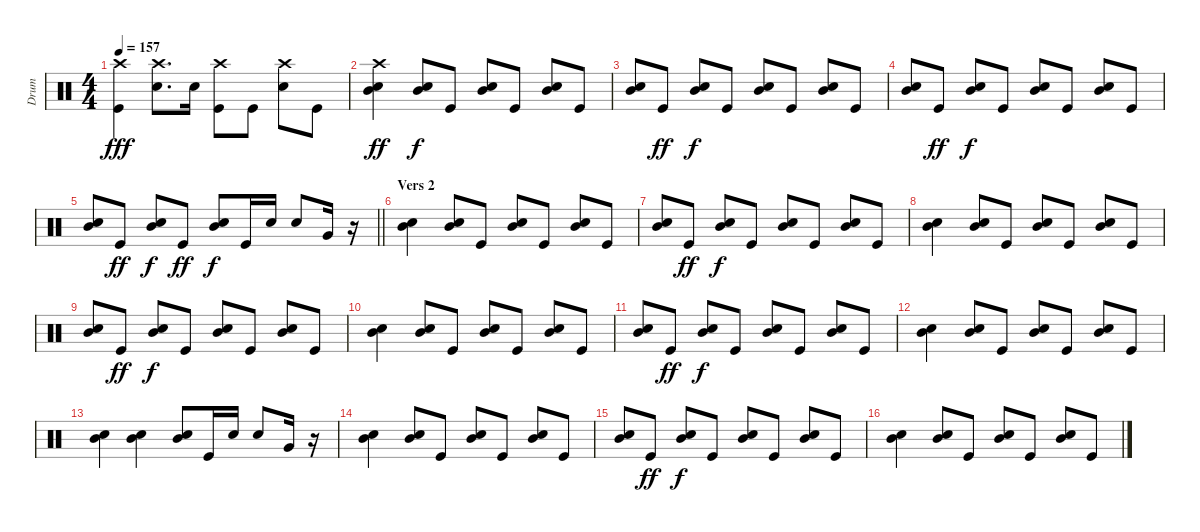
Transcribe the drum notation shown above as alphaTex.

\track ("Drum" "Drum") {instrument percussion}
\staff {score}
\articulation defaults
\ts (4 4)
\tempo 157
\clef neutral
\ks c
("Crash high (hit)" "Kick (hit)").4{dy fff} ("Crash high (hit)" "Snare (hit) 2").8{d} "Snare (hit) 2".16 ("Crash high (hit)" "Kick (hit)").8 "Kick (hit)".8 ("Crash high (hit)" "Snare (hit) 2").8 "Kick (hit)".8 |
("Crash high (hit)" "Mid Tom (hit)" "Snare (hit) 2").4{dy ff} ("Mid Tom (hit)" "Snare (hit) 2").8{dy f} "Kick (hit)".8 ("Mid Tom (hit)" "Snare (hit) 2").8 "Kick (hit)".8 ("Mid Tom (hit)" "Snare (hit) 2").8 "Kick (hit)".8 |
("Mid Tom (hit)" "Snare (hit) 2").8 "Kick (hit)".8{dy ff} ("Mid Tom (hit)" "Snare (hit) 2").8{dy f} "Kick (hit)".8 ("Mid Tom (hit)" "Snare (hit) 2").8 "Kick (hit)".8 ("Mid Tom (hit)" "Snare (hit) 2").8 "Kick (hit)".8 |
("Mid Tom (hit)" "Snare (hit) 2").8 "Kick (hit)".8{dy ff} ("Mid Tom (hit)" "Snare (hit) 2").8{dy f} "Kick (hit)".8 ("Mid Tom (hit)" "Snare (hit) 2").8 "Kick (hit)".8 ("Mid Tom (hit)" "Snare (hit) 2").8 "Kick (hit)".8 |
\barLineRight lightlight
("Mid Tom (hit)" "Snare (hit) 2").8 "Kick (hit)".8{dy ff} ("Mid Tom (hit)" "Snare (hit) 2").8{dy f} "Kick (hit)".8{dy ff} ("Mid Tom (hit)" "Snare (hit) 2").8{dy f} "Kick (hit)".16 "Snare (hit) 2".16 "Snare (hit) 2".8 "Very Low Tom (hit)".16 r.16 |
\section ("" "Vers 2")
("Mid Tom (hit)" "Snare (hit) 2").4 ("Mid Tom (hit)" "Snare (hit) 2").8 "Kick (hit)".8 ("Mid Tom (hit)" "Snare (hit) 2").8 "Kick (hit)".8 ("Mid Tom (hit)" "Snare (hit) 2").8 "Kick (hit)".8 |
("Mid Tom (hit)" "Snare (hit) 2").8 "Kick (hit)".8{dy ff} ("Mid Tom (hit)" "Snare (hit) 2").8{dy f} "Kick (hit)".8 ("Mid Tom (hit)" "Snare (hit) 2").8 "Kick (hit)".8 ("Mid Tom (hit)" "Snare (hit) 2").8 "Kick (hit)".8 |
("Mid Tom (hit)" "Snare (hit) 2").4 ("Mid Tom (hit)" "Snare (hit) 2").8 "Kick (hit)".8 ("Mid Tom (hit)" "Snare (hit) 2").8 "Kick (hit)".8 ("Mid Tom (hit)" "Snare (hit) 2").8 "Kick (hit)".8 |
("Mid Tom (hit)" "Snare (hit) 2").8 "Kick (hit)".8{dy ff} ("Mid Tom (hit)" "Snare (hit) 2").8{dy f} "Kick (hit)".8 ("Mid Tom (hit)" "Snare (hit) 2").8 "Kick (hit)".8 ("Mid Tom (hit)" "Snare (hit) 2").8 "Kick (hit)".8 |
("Mid Tom (hit)" "Snare (hit) 2").4 ("Mid Tom (hit)" "Snare (hit) 2").8 "Kick (hit)".8 ("Mid Tom (hit)" "Snare (hit) 2").8 "Kick (hit)".8 ("Mid Tom (hit)" "Snare (hit) 2").8 "Kick (hit)".8 |
("Mid Tom (hit)" "Snare (hit) 2").8 "Kick (hit)".8{dy ff} ("Mid Tom (hit)" "Snare (hit) 2").8{dy f} "Kick (hit)".8 ("Mid Tom (hit)" "Snare (hit) 2").8 "Kick (hit)".8 ("Mid Tom (hit)" "Snare (hit) 2").8 "Kick (hit)".8 |
("Mid Tom (hit)" "Snare (hit) 2").4 ("Mid Tom (hit)" "Snare (hit) 2").8 "Kick (hit)".8 ("Mid Tom (hit)" "Snare (hit) 2").8 "Kick (hit)".8 ("Mid Tom (hit)" "Snare (hit) 2").8 "Kick (hit)".8 |
("Mid Tom (hit)" "Snare (hit) 2").4 ("Mid Tom (hit)" "Snare (hit) 2").4 ("Mid Tom (hit)" "Snare (hit) 2").8 "Kick (hit)".16 "Snare (hit) 2".16 "Snare (hit) 2".8 "Very Low Tom (hit)".16 r.16 |
("Mid Tom (hit)" "Snare (hit) 2").4 ("Mid Tom (hit)" "Snare (hit) 2").8 "Kick (hit)".8 ("Mid Tom (hit)" "Snare (hit) 2").8 "Kick (hit)".8 ("Mid Tom (hit)" "Snare (hit) 2").8 "Kick (hit)".8 |
("Mid Tom (hit)" "Snare (hit) 2").8 "Kick (hit)".8{dy ff} ("Mid Tom (hit)" "Snare (hit) 2").8{dy f} "Kick (hit)".8 ("Mid Tom (hit)" "Snare (hit) 2").8 "Kick (hit)".8 ("Mid Tom (hit)" "Snare (hit) 2").8 "Kick (hit)".8 |
("Mid Tom (hit)" "Snare (hit) 2").4 ("Mid Tom (hit)" "Snare (hit) 2").8 "Kick (hit)".8 ("Mid Tom (hit)" "Snare (hit) 2").8 "Kick (hit)".8 ("Mid Tom (hit)" "Snare (hit) 2").8 "Kick (hit)".8
